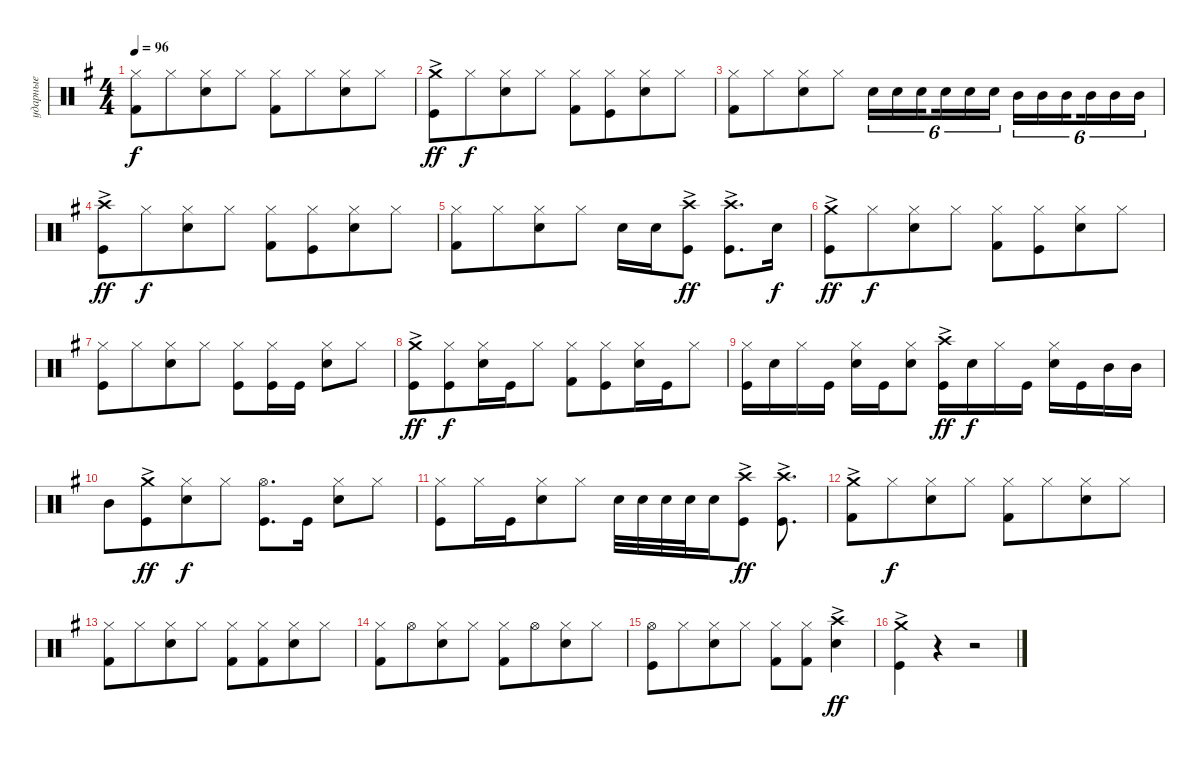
\track ("ударные" "ударные") {instrument percussion}
\staff {score}
\articulation defaults
\ts (4 4)
\tempo 96
\clef neutral
\ks eminor
("Hi-Hat (closed)" "Kick (hit) 2").8{dy f} "Hi-Hat (closed)".8{beam merge} ("Hi-Hat (closed)" "Snare (hit) 2").8 "Hi-Hat (closed)".8 ("Hi-Hat (closed)" "Kick (hit) 2").8 "Hi-Hat (closed)".8{beam merge} ("Hi-Hat (closed)" "Snare (hit) 2").8 "Hi-Hat (closed)".8 |
("Crash medium (hit)"{ac} "Kick (hit)").8{dy ff} "Hi-Hat (closed)".8{dy f beam merge} ("Hi-Hat (closed)" "Snare (hit) 2").8 "Hi-Hat (closed)".8 ("Hi-Hat (closed)" "Kick (hit) 2").8 ("Hi-Hat (closed)" "Kick (hit)").8{beam merge} ("Hi-Hat (closed)" "Snare (hit) 2").8 "Hi-Hat (closed)".8 |
("Hi-Hat (closed)" "Kick (hit) 2").8 "Hi-Hat (closed)".8{beam merge} ("Hi-Hat (closed)" "Snare (hit) 2").8 "Hi-Hat (closed)".8 "Snare (hit) 2".16{tu (6 4)} "Snare (hit) 2".16{tu (6 4)} "Snare (hit) 2".16{tu (6 4) beam splitsecondary} "Snare (hit) 2".16{tu (6 4)} "Snare (hit) 2".16{tu (6 4)} "Snare (hit) 2".16{tu (6 4)} "Mid Tom (hit)".16{tu (6 4)} "Mid Tom (hit)".16{tu (6 4)} "Mid Tom (hit)".16{tu (6 4) beam splitsecondary} "Mid Tom (hit)".16{tu (6 4)} "Mid Tom (hit)".16{tu (6 4)} "Mid Tom (hit)".16{tu (6 4)} |
("Kick (hit)" "Crash high (hit)"{ac}).8{dy ff} "Hi-Hat (closed)".8{dy f beam merge} ("Hi-Hat (closed)" "Snare (hit) 2").8 "Hi-Hat (closed)".8 ("Hi-Hat (closed)" "Kick (hit) 2").8 ("Hi-Hat (closed)" "Kick (hit)").8{beam merge} ("Hi-Hat (closed)" "Snare (hit) 2").8 "Hi-Hat (closed)".8 |
("Hi-Hat (closed)" "Kick (hit) 2").8 "Hi-Hat (closed)".8{beam merge} ("Hi-Hat (closed)" "Snare (hit) 2").8 "Hi-Hat (closed)".8 "Snare (hit) 2".16 "Snare (hit) 2".16 ("Kick (hit)" "Crash high (hit)"{ac}).8{dy ff} ("Kick (hit)" "Crash high (hit)"{ac}).8{d} "Snare (hit) 2".16{dy f} |
("Kick (hit)" "Crash medium (hit)"{ac}).8{dy ff} "Hi-Hat (closed)".8{dy f beam merge} ("Hi-Hat (closed)" "Snare (hit) 2").8 "Hi-Hat (closed)".8 ("Hi-Hat (closed)" "Kick (hit) 2").8 ("Hi-Hat (closed)" "Kick (hit)").8{beam merge} ("Hi-Hat (closed)" "Snare (hit) 2").8 "Hi-Hat (closed)".8 |
("Kick (hit)" "Hi-Hat (closed)").8 "Hi-Hat (closed)".8{beam merge} ("Snare (hit) 2" "Hi-Hat (closed)").8 "Hi-Hat (closed)".8 ("Kick (hit)" "Hi-Hat (closed)").8 ("Kick (hit)" "Hi-Hat (closed)").16 "Kick (hit)".16 ("Snare (hit) 2" "Hi-Hat (closed)").8 "Hi-Hat (closed)".8 |
("Kick (hit)" "Crash medium (hit)"{ac}).8{dy ff} ("Hi-Hat (closed)" "Kick (hit)").8{dy f beam merge} ("Hi-Hat (closed)" "Snare (hit) 2").16 "Kick (hit)".16 "Hi-Hat (closed)".8 ("Hi-Hat (closed)" "Kick (hit) 2").8 ("Hi-Hat (closed)" "Kick (hit)").8{beam merge} ("Hi-Hat (closed)" "Snare (hit) 2").16 "Kick (hit)".16 "Hi-Hat (closed)".8 |
("Hi-Hat (closed)" "Kick (hit)").16 "Snare (hit) 2".16 "Hi-Hat (closed)".16 "Kick (hit)".16 ("Snare (hit) 2" "Hi-Hat (closed)").16 "Kick (hit)".16 ("Snare (hit) 2" "Hi-Hat (closed)").8 ("Kick (hit)" "Crash high (hit)"{ac}).16{dy ff} "Snare (hit) 2".16{dy f} "Hi-Hat (closed)".16 "Kick (hit)".16 ("Snare (hit) 2" "Hi-Hat (closed)").16 "Kick (hit)".16 "Mid Tom (hit)".16 "Mid Tom (hit)".16 |
"Mid Tom (hit)".8 ("Kick (hit)" "Crash medium (hit)"{ac}).8{dy ff beam merge} ("Snare (hit) 2" "Hi-Hat (closed)").8{dy f} "Hi-Hat (closed)".8 ("Kick (hit)" "Hi-Hat (open)").8{d} "Kick (hit)".16 ("Snare (hit) 2" "Hi-Hat (closed)").8 "Hi-Hat (closed)".8 |
("Hi-Hat (closed)" "Kick (hit)").8 "Hi-Hat (closed)".16 "Kick (hit)".16{beam merge} ("Snare (hit) 2" "Hi-Hat (closed)").8 "Hi-Hat (closed)".8 "Snare (hit) 2".32 "Snare (hit) 2".32 "Snare (hit) 2".32 "Snare (hit) 2".32{beam splitsecondary} "Snare (hit) 2".16 ("Kick (hit)" "Crash high (hit)"{ac}).8{dy ff} ("Kick (hit)" "Crash high (hit)"{ac}).8{d} |
("Crash medium (hit)"{ac} "Kick (hit) 2").8 "Hi-Hat (closed)".8{dy f beam merge} ("Hi-Hat (closed)" "Snare (hit) 2").8 "Hi-Hat (closed)".8 ("Hi-Hat (closed)" "Kick (hit) 2").8 "Hi-Hat (closed)".8{beam merge} ("Hi-Hat (closed)" "Snare (hit) 2").8 "Hi-Hat (closed)".8 |
("Hi-Hat (closed)" "Kick (hit) 2").8{beam merge} "Hi-Hat (closed)".8{beam merge} ("Hi-Hat (closed)" "Snare (hit) 2").8{beam merge} "Hi-Hat (closed)".8 ("Hi-Hat (closed)" "Kick (hit) 2").8 ("Hi-Hat (closed)" "Kick (hit) 2").8{beam merge} ("Hi-Hat (closed)" "Snare (hit) 2").8 "Hi-Hat (closed)".8 |
("Hi-Hat (closed)" "Kick (hit) 2").8 "Hi-Hat (open)".8{beam merge} ("Hi-Hat (closed)" "Snare (hit) 2").8 "Hi-Hat (closed)".8 ("Hi-Hat (closed)" "Kick (hit) 2").8 "Hi-Hat (open)".8{beam merge} ("Hi-Hat (closed)" "Snare (hit) 2").8 "Hi-Hat (closed)".8 |
("Kick (hit)" "Hi-Hat (open)").8 "Hi-Hat (closed)".8{beam merge} ("Hi-Hat (closed)" "Snare (hit) 2").8 "Hi-Hat (closed)".8 ("Hi-Hat (closed)" "Kick (hit) 2").8 ("Hi-Hat (closed)" "Kick (hit) 2").8 ("Snare (hit) 2" "Crash high (hit)"{ac}).4{dy ff} |
("Kick (hit)" "Crash medium (hit)"{ac}).4 r.4 r.2
